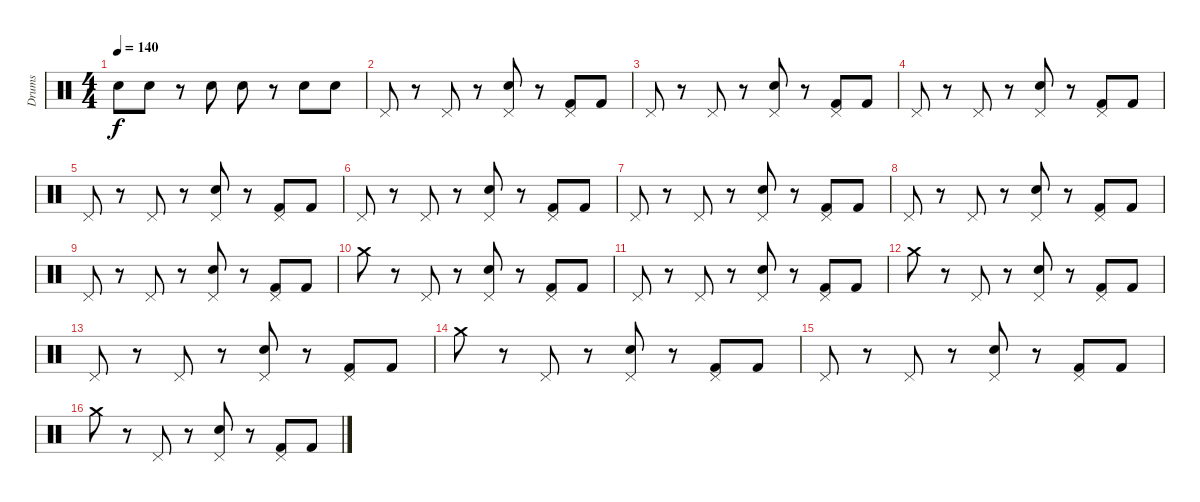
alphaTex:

\track ("Drums" "Drums") {instrument percussion}
\staff {score}
\articulation defaults
\ts (4 4)
\tempo 140
\clef neutral
\ks c "Snare (hit) 2".8{dy f} "Snare (hit) 2".8
r.8 "Snare (hit) 2".8 "Snare (hit) 2".8 r.8 "Snare (hit) 2".8 "Snare (hit) 2".8 |
"Pedal Hi-Hat (hit)".8 r.8 "Pedal Hi-Hat (hit)".8 r.8 ("Pedal Hi-Hat (hit)" "Snare (hit) 2").8 r.8 ("Pedal Hi-Hat (hit)" "Kick (hit) 2").8 "Kick (hit) 2".8 |
"Pedal Hi-Hat (hit)".8 r.8 "Pedal Hi-Hat (hit)".8 r.8 ("Pedal Hi-Hat (hit)" "Snare (hit) 2").8 r.8 ("Pedal Hi-Hat (hit)" "Kick (hit) 2").8 "Kick (hit) 2".8 |
"Pedal Hi-Hat (hit)".8 r.8 "Pedal Hi-Hat (hit)".8 r.8 ("Pedal Hi-Hat (hit)" "Snare (hit) 2").8 r.8 ("Pedal Hi-Hat (hit)" "Kick (hit) 2").8 "Kick (hit) 2".8 |
"Pedal Hi-Hat (hit)".8 r.8 "Pedal Hi-Hat (hit)".8 r.8 ("Pedal Hi-Hat (hit)" "Snare (hit) 2").8 r.8 ("Pedal Hi-Hat (hit)" "Kick (hit) 2").8 "Kick (hit) 2".8 |
"Pedal Hi-Hat (hit)".8 r.8 "Pedal Hi-Hat (hit)".8 r.8 ("Pedal Hi-Hat (hit)" "Snare (hit) 2").8 r.8 ("Pedal Hi-Hat (hit)" "Kick (hit) 2").8 "Kick (hit) 2".8 |
"Pedal Hi-Hat (hit)".8 r.8 "Pedal Hi-Hat (hit)".8 r.8 ("Pedal Hi-Hat (hit)" "Snare (hit) 2").8 r.8 ("Pedal Hi-Hat (hit)" "Kick (hit) 2").8 "Kick (hit) 2".8 |
"Pedal Hi-Hat (hit)".8 r.8 "Pedal Hi-Hat (hit)".8 r.8 ("Pedal Hi-Hat (hit)" "Snare (hit) 2").8 r.8 ("Pedal Hi-Hat (hit)" "Kick (hit) 2").8 "Kick (hit) 2".8 |
"Pedal Hi-Hat (hit)".8 r.8 "Pedal Hi-Hat (hit)".8 r.8 ("Pedal Hi-Hat (hit)" "Snare (hit) 2").8 r.8 ("Pedal Hi-Hat (hit)" "Kick (hit) 2").8 "Kick (hit) 2".8 |
"Crash medium (hit)".8 r.8 "Pedal Hi-Hat (hit)".8 r.8 ("Pedal Hi-Hat (hit)" "Snare (hit) 2").8 r.8 ("Pedal Hi-Hat (hit)" "Kick (hit) 2").8 "Kick (hit) 2".8 |
"Pedal Hi-Hat (hit)".8 r.8 "Pedal Hi-Hat (hit)".8 r.8 ("Pedal Hi-Hat (hit)" "Snare (hit) 2").8 r.8 ("Pedal Hi-Hat (hit)" "Kick (hit) 2").8 "Kick (hit) 2".8 |
"Crash medium (hit)".8 r.8 "Pedal Hi-Hat (hit)".8 r.8 ("Pedal Hi-Hat (hit)" "Snare (hit) 2").8 r.8 ("Pedal Hi-Hat (hit)" "Kick (hit) 2").8 "Kick (hit) 2".8 |
"Pedal Hi-Hat (hit)".8 r.8 "Pedal Hi-Hat (hit)".8 r.8 ("Pedal Hi-Hat (hit)" "Snare (hit) 2").8 r.8 ("Pedal Hi-Hat (hit)" "Kick (hit) 2").8 "Kick (hit) 2".8 |
"Crash medium (hit)".8 r.8 "Pedal Hi-Hat (hit)".8 r.8 ("Pedal Hi-Hat (hit)" "Snare (hit) 2").8 r.8 ("Pedal Hi-Hat (hit)" "Kick (hit) 2").8 "Kick (hit) 2".8 |
"Pedal Hi-Hat (hit)".8 r.8 "Pedal Hi-Hat (hit)".8 r.8 ("Pedal Hi-Hat (hit)" "Snare (hit) 2").8 r.8 ("Pedal Hi-Hat (hit)" "Kick (hit) 2").8 "Kick (hit) 2".8 |
"Crash medium (hit)".8 r.8 "Pedal Hi-Hat (hit)".8 r.8 ("Pedal Hi-Hat (hit)" "Snare (hit) 2").8 r.8 ("Pedal Hi-Hat (hit)" "Kick (hit) 2").8 "Kick (hit) 2".8
